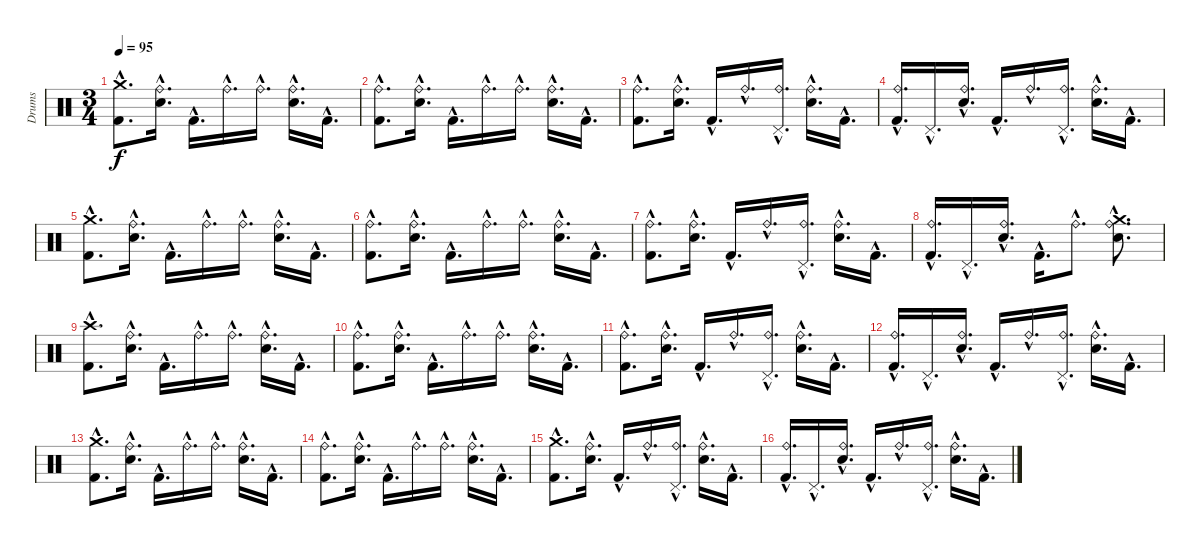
\track ("Drums" "Drums") {instrument percussion}
\staff {score}
\articulation defaults
\ts (3 4)
\tempo 95
\clef neutral
\ks c
("Kick (hit) 2"{hac} "Crash medium (hit)"{hac}).8{d dy f} ("Electric Snare (hit)"{hac} "Ride (bell)"{hac}).16{d} "Kick (hit) 2"{hac}.16{d} "Ride (bell)"{hac}.16{d} "Ride (bell)"{hac}.16{d} ("Electric Snare (hit)"{hac} "Ride (bell)"{hac}).16{d} "Kick (hit) 2"{hac}.16{d} |
("Kick (hit) 2"{hac} "Ride (bell)"{hac}).8{d} ("Electric Snare (hit)"{hac} "Ride (bell)"{hac}).16{d} "Kick (hit) 2"{hac}.16{d} "Ride (bell)"{hac}.16{d} "Ride (bell)"{hac}.16{d} ("Electric Snare (hit)"{hac} "Ride (bell)"{hac}).16{d} "Kick (hit) 2"{hac}.16{d} |
("Kick (hit) 2"{hac} "Ride (bell)"{hac}).8{d} ("Electric Snare (hit)"{hac} "Ride (bell)"{hac}).16{d} "Kick (hit) 2"{hac}.16{d} "Ride (bell)"{hac}.16{d} ("Ride (bell)"{hac} "Pedal Hi-Hat (hit)"{hac}).16{d} ("Electric Snare (hit)"{hac} "Ride (bell)"{hac}).16{d} "Kick (hit) 2"{hac}.16{d} |
("Kick (hit) 2"{hac} "Ride (bell)"{hac}).16{d} "Pedal Hi-Hat (hit)"{hac}.16{d} ("Electric Snare (hit)"{hac} "Ride (bell)"{hac}).16{d} "Kick (hit) 2"{hac}.16{d} "Ride (bell)"{hac}.16{d} ("Ride (bell)"{hac} "Pedal Hi-Hat (hit)"{hac}).16{d} ("Electric Snare (hit)"{hac} "Ride (bell)"{hac}).16{d} "Kick (hit) 2"{hac}.16{d} |
("Kick (hit) 2"{hac} "Crash medium (hit)"{hac}).8{d} ("Electric Snare (hit)"{hac} "Ride (bell)"{hac}).16{d} "Kick (hit) 2"{hac}.16{d} "Ride (bell)"{hac}.16{d} "Ride (bell)"{hac}.16{d} ("Electric Snare (hit)"{hac} "Ride (bell)"{hac}).16{d} "Kick (hit) 2"{hac}.16{d} |
("Kick (hit) 2"{hac} "Ride (bell)"{hac}).8{d} ("Electric Snare (hit)"{hac} "Ride (bell)"{hac}).16{d} "Kick (hit) 2"{hac}.16{d} "Ride (bell)"{hac}.16{d} "Ride (bell)"{hac}.16{d} ("Electric Snare (hit)"{hac} "Ride (bell)"{hac}).16{d} "Kick (hit) 2"{hac}.16{d} |
("Kick (hit) 2"{hac} "Ride (bell)"{hac}).8{d} ("Electric Snare (hit)"{hac} "Ride (bell)"{hac}).16{d} "Kick (hit) 2"{hac}.16{d} "Ride (bell)"{hac}.16{d} ("Ride (bell)"{hac} "Pedal Hi-Hat (hit)"{hac}).16{d} ("Electric Snare (hit)"{hac} "Ride (bell)"{hac}).16{d} "Kick (hit) 2"{hac}.16{d} |
("Kick (hit) 2"{hac} "Ride (bell)"{hac}).16{d} "Pedal Hi-Hat (hit)"{hac}.16{d} ("Electric Snare (hit)"{hac} "Ride (bell)"{hac}).16{d} "Kick (hit) 2"{hac}.16{d} "Ride (bell)"{hac}.8{d} ("Electric Snare (hit)"{hac} "Ride (bell)"{hac} "Crash medium (hit)"{hac}).8{d} |
("Kick (hit) 2"{hac} "Crash high (hit)"{hac}).8{d} ("Electric Snare (hit)"{hac} "Ride (bell)"{hac}).16{d} "Kick (hit) 2"{hac}.16{d} "Ride (bell)"{hac}.16{d} "Ride (bell)"{hac}.16{d} ("Electric Snare (hit)"{hac} "Ride (bell)"{hac}).16{d} "Kick (hit) 2"{hac}.16{d} |
("Kick (hit) 2"{hac} "Ride (bell)"{hac}).8{d} ("Electric Snare (hit)"{hac} "Ride (bell)"{hac}).16{d} "Kick (hit) 2"{hac}.16{d} "Ride (bell)"{hac}.16{d} "Ride (bell)"{hac}.16{d} ("Electric Snare (hit)"{hac} "Ride (bell)"{hac}).16{d} "Kick (hit) 2"{hac}.16{d} |
("Kick (hit) 2"{hac} "Ride (bell)"{hac}).8{d} ("Electric Snare (hit)"{hac} "Ride (bell)"{hac}).16{d} "Kick (hit) 2"{hac}.16{d} "Ride (bell)"{hac}.16{d} ("Ride (bell)"{hac} "Pedal Hi-Hat (hit)"{hac}).16{d} ("Electric Snare (hit)"{hac} "Ride (bell)"{hac}).16{d} "Kick (hit) 2"{hac}.16{d} |
("Kick (hit) 2"{hac} "Ride (bell)"{hac}).16{d} "Pedal Hi-Hat (hit)"{hac}.16{d} ("Electric Snare (hit)"{hac} "Ride (bell)"{hac}).16{d} "Kick (hit) 2"{hac}.16{d} "Ride (bell)"{hac}.16{d} ("Ride (bell)"{hac} "Pedal Hi-Hat (hit)"{hac}).16{d} ("Electric Snare (hit)"{hac} "Ride (bell)"{hac}).16{d} "Kick (hit) 2"{hac}.16{d} |
("Kick (hit) 2"{hac} "Crash medium (hit)"{hac}).8{d} ("Electric Snare (hit)"{hac} "Ride (bell)"{hac}).16{d} "Kick (hit) 2"{hac}.16{d} "Ride (bell)"{hac}.16{d} "Ride (bell)"{hac}.16{d} ("Electric Snare (hit)"{hac} "Ride (bell)"{hac}).16{d} "Kick (hit) 2"{hac}.16{d} |
("Kick (hit) 2"{hac} "Ride (bell)"{hac}).8{d} ("Electric Snare (hit)"{hac} "Ride (bell)"{hac}).16{d} "Kick (hit) 2"{hac}.16{d} "Ride (bell)"{hac}.16{d} "Ride (bell)"{hac}.16{d} ("Electric Snare (hit)"{hac} "Ride (bell)"{hac}).16{d} "Kick (hit) 2"{hac}.16{d} |
("Kick (hit) 2"{hac} "Crash medium (hit)"{hac}).8{d} ("Electric Snare (hit)"{hac} "Ride (bell)"{hac}).16{d} "Kick (hit) 2"{hac}.16{d} "Ride (bell)"{hac}.16{d} ("Ride (bell)"{hac} "Pedal Hi-Hat (hit)"{hac}).16{d} ("Electric Snare (hit)"{hac} "Ride (bell)"{hac}).16{d} "Kick (hit) 2"{hac}.16{d} |
("Kick (hit) 2"{hac} "Ride (bell)"{hac}).16{d} "Pedal Hi-Hat (hit)"{hac}.16{d} ("Electric Snare (hit)"{hac} "Ride (bell)"{hac}).16{d} "Kick (hit) 2"{hac}.16{d} "Ride (bell)"{hac}.16{d} ("Ride (bell)"{hac} "Pedal Hi-Hat (hit)"{hac}).16{d} ("Electric Snare (hit)"{hac} "Ride (bell)"{hac}).16{d} "Kick (hit) 2"{hac}.16{d}
